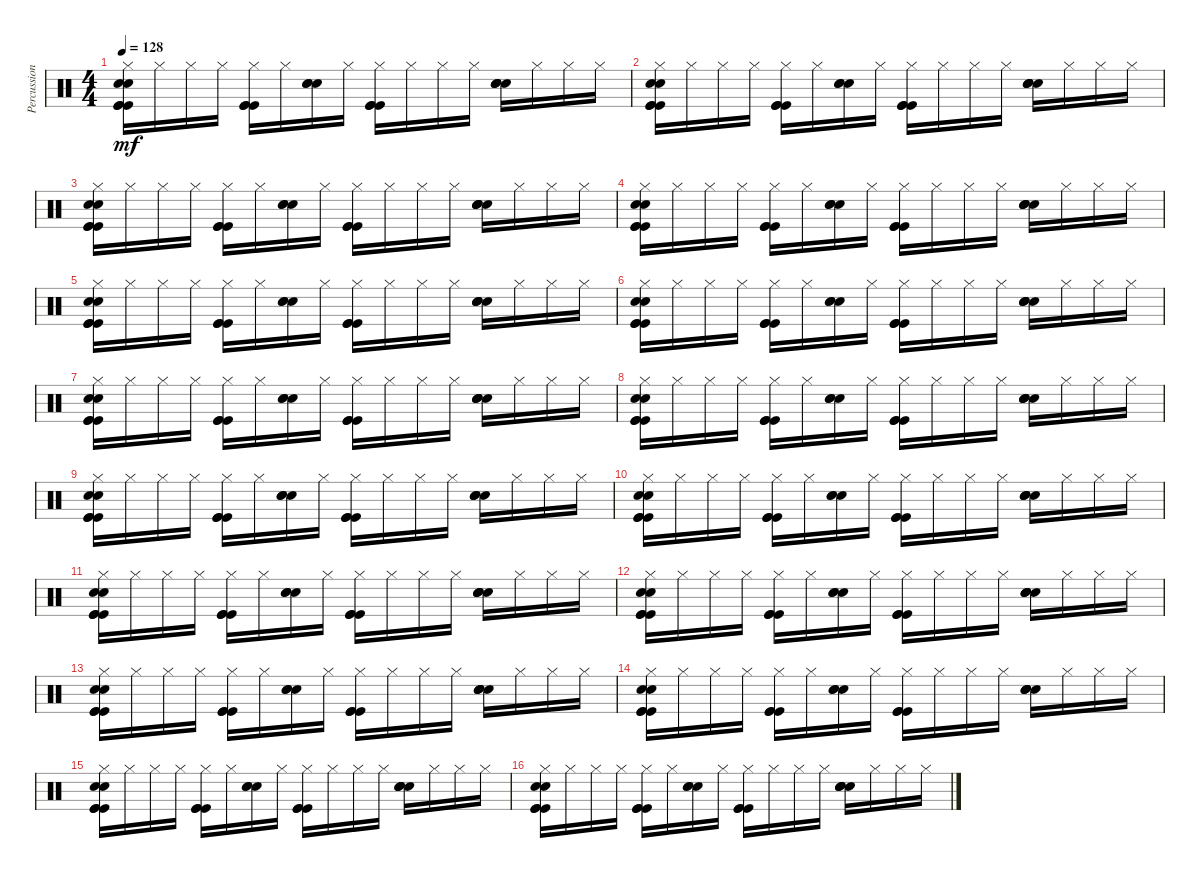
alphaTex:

\track ("Percussion" "Percussion") {instrument percussion}
\staff {score}
\articulation defaults
\ts (4 4)
\tempo 128
\clef neutral
\ks c
("Hi-Hat (closed)" "Kick (hit)" "Kick (hit)" "Kick (hit)" "Snare (hit) 2" "Snare (hit) 2").16{dy mf} "Hi-Hat (closed)".16 "Hi-Hat (closed)".16 "Hi-Hat (closed)".16 ("Hi-Hat (closed)" "Kick (hit)" "Kick (hit)" "Kick (hit)").16 "Hi-Hat (closed)".16 ("Snare (hit) 2" "Snare (hit) 2" "Snare (hit) 2").16 "Hi-Hat (closed)".16 ("Hi-Hat (closed)" "Kick (hit)" "Kick (hit)" "Kick (hit)").16 "Hi-Hat (closed)".16 "Hi-Hat (closed)".16 "Hi-Hat (closed)".16 ("Snare (hit) 2" "Snare (hit) 2" "Snare (hit) 2" "Snare (hit) 2").16 "Hi-Hat (closed)".16 "Hi-Hat (closed)".16 "Hi-Hat (closed)".16 |
("Hi-Hat (closed)" "Kick (hit)" "Kick (hit)" "Kick (hit)" "Snare (hit) 2" "Snare (hit) 2").16 "Hi-Hat (closed)".16 "Hi-Hat (closed)".16 "Hi-Hat (closed)".16 ("Hi-Hat (closed)" "Kick (hit)" "Kick (hit)" "Kick (hit)").16 "Hi-Hat (closed)".16 ("Snare (hit) 2" "Snare (hit) 2" "Snare (hit) 2").16 "Hi-Hat (closed)".16 ("Hi-Hat (closed)" "Kick (hit)" "Kick (hit)" "Kick (hit)").16 "Hi-Hat (closed)".16 "Hi-Hat (closed)".16 "Hi-Hat (closed)".16 ("Snare (hit) 2" "Snare (hit) 2" "Snare (hit) 2" "Snare (hit) 2").16 "Hi-Hat (closed)".16 "Hi-Hat (closed)".16 "Hi-Hat (closed)".16 |
("Hi-Hat (closed)" "Kick (hit)" "Kick (hit)" "Kick (hit)" "Snare (hit) 2" "Snare (hit) 2").16 "Hi-Hat (closed)".16 "Hi-Hat (closed)".16 "Hi-Hat (closed)".16 ("Hi-Hat (closed)" "Kick (hit)" "Kick (hit)" "Kick (hit)").16 "Hi-Hat (closed)".16 ("Snare (hit) 2" "Snare (hit) 2" "Snare (hit) 2").16 "Hi-Hat (closed)".16 ("Hi-Hat (closed)" "Kick (hit)" "Kick (hit)" "Kick (hit)").16 "Hi-Hat (closed)".16 "Hi-Hat (closed)".16 "Hi-Hat (closed)".16 ("Snare (hit) 2" "Snare (hit) 2" "Snare (hit) 2" "Snare (hit) 2").16 "Hi-Hat (closed)".16 "Hi-Hat (closed)".16 "Hi-Hat (closed)".16 |
("Hi-Hat (closed)" "Kick (hit)" "Kick (hit)" "Kick (hit)" "Snare (hit) 2" "Snare (hit) 2").16 "Hi-Hat (closed)".16 "Hi-Hat (closed)".16 "Hi-Hat (closed)".16 ("Hi-Hat (closed)" "Kick (hit)" "Kick (hit)" "Kick (hit)").16 "Hi-Hat (closed)".16 ("Snare (hit) 2" "Snare (hit) 2" "Snare (hit) 2").16 "Hi-Hat (closed)".16 ("Hi-Hat (closed)" "Kick (hit)" "Kick (hit)" "Kick (hit)").16 "Hi-Hat (closed)".16 "Hi-Hat (closed)".16 "Hi-Hat (closed)".16 ("Snare (hit) 2" "Snare (hit) 2" "Snare (hit) 2" "Snare (hit) 2").16 "Hi-Hat (closed)".16 "Hi-Hat (closed)".16 "Hi-Hat (closed)".16 |
("Hi-Hat (closed)" "Kick (hit)" "Kick (hit)" "Kick (hit)" "Snare (hit) 2" "Snare (hit) 2").16 "Hi-Hat (closed)".16 "Hi-Hat (closed)".16 "Hi-Hat (closed)".16 ("Hi-Hat (closed)" "Kick (hit)" "Kick (hit)" "Kick (hit)").16 "Hi-Hat (closed)".16 ("Snare (hit) 2" "Snare (hit) 2" "Snare (hit) 2").16 "Hi-Hat (closed)".16 ("Hi-Hat (closed)" "Kick (hit)" "Kick (hit)" "Kick (hit)").16 "Hi-Hat (closed)".16 "Hi-Hat (closed)".16 "Hi-Hat (closed)".16 ("Snare (hit) 2" "Snare (hit) 2" "Snare (hit) 2" "Snare (hit) 2").16 "Hi-Hat (closed)".16 "Hi-Hat (closed)".16 "Hi-Hat (closed)".16 |
("Hi-Hat (closed)" "Kick (hit)" "Kick (hit)" "Kick (hit)" "Snare (hit) 2" "Snare (hit) 2").16 "Hi-Hat (closed)".16 "Hi-Hat (closed)".16 "Hi-Hat (closed)".16 ("Hi-Hat (closed)" "Kick (hit)" "Kick (hit)" "Kick (hit)").16 "Hi-Hat (closed)".16 ("Snare (hit) 2" "Snare (hit) 2" "Snare (hit) 2").16 "Hi-Hat (closed)".16 ("Hi-Hat (closed)" "Kick (hit)" "Kick (hit)" "Kick (hit)").16 "Hi-Hat (closed)".16 "Hi-Hat (closed)".16 "Hi-Hat (closed)".16 ("Snare (hit) 2" "Snare (hit) 2" "Snare (hit) 2" "Snare (hit) 2").16 "Hi-Hat (closed)".16 "Hi-Hat (closed)".16 "Hi-Hat (closed)".16 |
("Hi-Hat (closed)" "Kick (hit)" "Kick (hit)" "Kick (hit)" "Snare (hit) 2" "Snare (hit) 2").16 "Hi-Hat (closed)".16 "Hi-Hat (closed)".16 "Hi-Hat (closed)".16 ("Hi-Hat (closed)" "Kick (hit)" "Kick (hit)" "Kick (hit)").16 "Hi-Hat (closed)".16 ("Snare (hit) 2" "Snare (hit) 2" "Snare (hit) 2").16 "Hi-Hat (closed)".16 ("Hi-Hat (closed)" "Kick (hit)" "Kick (hit)" "Kick (hit)").16 "Hi-Hat (closed)".16 "Hi-Hat (closed)".16 "Hi-Hat (closed)".16 ("Snare (hit) 2" "Snare (hit) 2" "Snare (hit) 2" "Snare (hit) 2").16 "Hi-Hat (closed)".16 "Hi-Hat (closed)".16 "Hi-Hat (closed)".16 |
("Hi-Hat (closed)" "Kick (hit)" "Kick (hit)" "Kick (hit)" "Snare (hit) 2" "Snare (hit) 2").16 "Hi-Hat (closed)".16 "Hi-Hat (closed)".16 "Hi-Hat (closed)".16 ("Hi-Hat (closed)" "Kick (hit)" "Kick (hit)" "Kick (hit)").16 "Hi-Hat (closed)".16 ("Snare (hit) 2" "Snare (hit) 2" "Snare (hit) 2").16 "Hi-Hat (closed)".16 ("Hi-Hat (closed)" "Kick (hit)" "Kick (hit)" "Kick (hit)").16 "Hi-Hat (closed)".16 "Hi-Hat (closed)".16 "Hi-Hat (closed)".16 ("Snare (hit) 2" "Snare (hit) 2" "Snare (hit) 2" "Snare (hit) 2").16 "Hi-Hat (closed)".16 "Hi-Hat (closed)".16 "Hi-Hat (closed)".16 |
("Hi-Hat (closed)" "Kick (hit)" "Kick (hit)" "Kick (hit)" "Snare (hit) 2" "Snare (hit) 2").16 "Hi-Hat (closed)".16 "Hi-Hat (closed)".16 "Hi-Hat (closed)".16 ("Hi-Hat (closed)" "Kick (hit)" "Kick (hit)" "Kick (hit)").16 "Hi-Hat (closed)".16 ("Snare (hit) 2" "Snare (hit) 2" "Snare (hit) 2").16 "Hi-Hat (closed)".16 ("Hi-Hat (closed)" "Kick (hit)" "Kick (hit)" "Kick (hit)").16 "Hi-Hat (closed)".16 "Hi-Hat (closed)".16 "Hi-Hat (closed)".16 ("Snare (hit) 2" "Snare (hit) 2" "Snare (hit) 2" "Snare (hit) 2").16 "Hi-Hat (closed)".16 "Hi-Hat (closed)".16 "Hi-Hat (closed)".16 |
("Hi-Hat (closed)" "Kick (hit)" "Kick (hit)" "Kick (hit)" "Snare (hit) 2" "Snare (hit) 2").16 "Hi-Hat (closed)".16 "Hi-Hat (closed)".16 "Hi-Hat (closed)".16 ("Hi-Hat (closed)" "Kick (hit)" "Kick (hit)" "Kick (hit)").16 "Hi-Hat (closed)".16 ("Snare (hit) 2" "Snare (hit) 2" "Snare (hit) 2").16 "Hi-Hat (closed)".16 ("Hi-Hat (closed)" "Kick (hit)" "Kick (hit)" "Kick (hit)").16 "Hi-Hat (closed)".16 "Hi-Hat (closed)".16 "Hi-Hat (closed)".16 ("Snare (hit) 2" "Snare (hit) 2" "Snare (hit) 2" "Snare (hit) 2").16 "Hi-Hat (closed)".16 "Hi-Hat (closed)".16 "Hi-Hat (closed)".16 |
("Hi-Hat (closed)" "Kick (hit)" "Kick (hit)" "Kick (hit)" "Snare (hit) 2" "Snare (hit) 2").16 "Hi-Hat (closed)".16 "Hi-Hat (closed)".16 "Hi-Hat (closed)".16 ("Hi-Hat (closed)" "Kick (hit)" "Kick (hit)" "Kick (hit)").16 "Hi-Hat (closed)".16 ("Snare (hit) 2" "Snare (hit) 2" "Snare (hit) 2").16 "Hi-Hat (closed)".16 ("Hi-Hat (closed)" "Kick (hit)" "Kick (hit)" "Kick (hit)").16 "Hi-Hat (closed)".16 "Hi-Hat (closed)".16 "Hi-Hat (closed)".16 ("Snare (hit) 2" "Snare (hit) 2" "Snare (hit) 2" "Snare (hit) 2").16 "Hi-Hat (closed)".16 "Hi-Hat (closed)".16 "Hi-Hat (closed)".16 |
("Hi-Hat (closed)" "Kick (hit)" "Kick (hit)" "Kick (hit)" "Snare (hit) 2" "Snare (hit) 2").16 "Hi-Hat (closed)".16 "Hi-Hat (closed)".16 "Hi-Hat (closed)".16 ("Hi-Hat (closed)" "Kick (hit)" "Kick (hit)" "Kick (hit)").16 "Hi-Hat (closed)".16 ("Snare (hit) 2" "Snare (hit) 2" "Snare (hit) 2").16 "Hi-Hat (closed)".16 ("Hi-Hat (closed)" "Kick (hit)" "Kick (hit)" "Kick (hit)").16 "Hi-Hat (closed)".16 "Hi-Hat (closed)".16 "Hi-Hat (closed)".16 ("Snare (hit) 2" "Snare (hit) 2" "Snare (hit) 2" "Snare (hit) 2").16 "Hi-Hat (closed)".16 "Hi-Hat (closed)".16 "Hi-Hat (closed)".16 |
("Hi-Hat (closed)" "Kick (hit)" "Kick (hit)" "Kick (hit)" "Snare (hit) 2" "Snare (hit) 2").16 "Hi-Hat (closed)".16 "Hi-Hat (closed)".16 "Hi-Hat (closed)".16 ("Hi-Hat (closed)" "Kick (hit)" "Kick (hit)" "Kick (hit)").16 "Hi-Hat (closed)".16 ("Snare (hit) 2" "Snare (hit) 2" "Snare (hit) 2").16 "Hi-Hat (closed)".16 ("Hi-Hat (closed)" "Kick (hit)" "Kick (hit)" "Kick (hit)").16 "Hi-Hat (closed)".16 "Hi-Hat (closed)".16 "Hi-Hat (closed)".16 ("Snare (hit) 2" "Snare (hit) 2" "Snare (hit) 2" "Snare (hit) 2").16 "Hi-Hat (closed)".16 "Hi-Hat (closed)".16 "Hi-Hat (closed)".16 |
("Hi-Hat (closed)" "Kick (hit)" "Kick (hit)" "Kick (hit)" "Snare (hit) 2" "Snare (hit) 2").16 "Hi-Hat (closed)".16 "Hi-Hat (closed)".16 "Hi-Hat (closed)".16 ("Hi-Hat (closed)" "Kick (hit)" "Kick (hit)" "Kick (hit)").16 "Hi-Hat (closed)".16 ("Snare (hit) 2" "Snare (hit) 2" "Snare (hit) 2").16 "Hi-Hat (closed)".16 ("Hi-Hat (closed)" "Kick (hit)" "Kick (hit)" "Kick (hit)").16 "Hi-Hat (closed)".16 "Hi-Hat (closed)".16 "Hi-Hat (closed)".16 ("Snare (hit) 2" "Snare (hit) 2" "Snare (hit) 2" "Snare (hit) 2").16 "Hi-Hat (closed)".16 "Hi-Hat (closed)".16 "Hi-Hat (closed)".16 |
("Hi-Hat (closed)" "Kick (hit)" "Kick (hit)" "Kick (hit)" "Snare (hit) 2" "Snare (hit) 2").16 "Hi-Hat (closed)".16 "Hi-Hat (closed)".16 "Hi-Hat (closed)".16 ("Hi-Hat (closed)" "Kick (hit)" "Kick (hit)" "Kick (hit)").16 "Hi-Hat (closed)".16 ("Snare (hit) 2" "Snare (hit) 2" "Snare (hit) 2").16 "Hi-Hat (closed)".16 ("Hi-Hat (closed)" "Kick (hit)" "Kick (hit)" "Kick (hit)").16 "Hi-Hat (closed)".16 "Hi-Hat (closed)".16 "Hi-Hat (closed)".16 ("Snare (hit) 2" "Snare (hit) 2" "Snare (hit) 2" "Snare (hit) 2").16 "Hi-Hat (closed)".16 "Hi-Hat (closed)".16 "Hi-Hat (closed)".16 |
("Hi-Hat (closed)" "Kick (hit)" "Kick (hit)" "Kick (hit)" "Snare (hit) 2" "Snare (hit) 2").16 "Hi-Hat (closed)".16 "Hi-Hat (closed)".16 "Hi-Hat (closed)".16 ("Hi-Hat (closed)" "Kick (hit)" "Kick (hit)" "Kick (hit)").16 "Hi-Hat (closed)".16 ("Snare (hit) 2" "Snare (hit) 2" "Snare (hit) 2").16 "Hi-Hat (closed)".16 ("Hi-Hat (closed)" "Kick (hit)" "Kick (hit)" "Kick (hit)").16 "Hi-Hat (closed)".16 "Hi-Hat (closed)".16 "Hi-Hat (closed)".16 ("Snare (hit) 2" "Snare (hit) 2" "Snare (hit) 2" "Snare (hit) 2").16 "Hi-Hat (closed)".16 "Hi-Hat (closed)".16 "Hi-Hat (closed)".16
